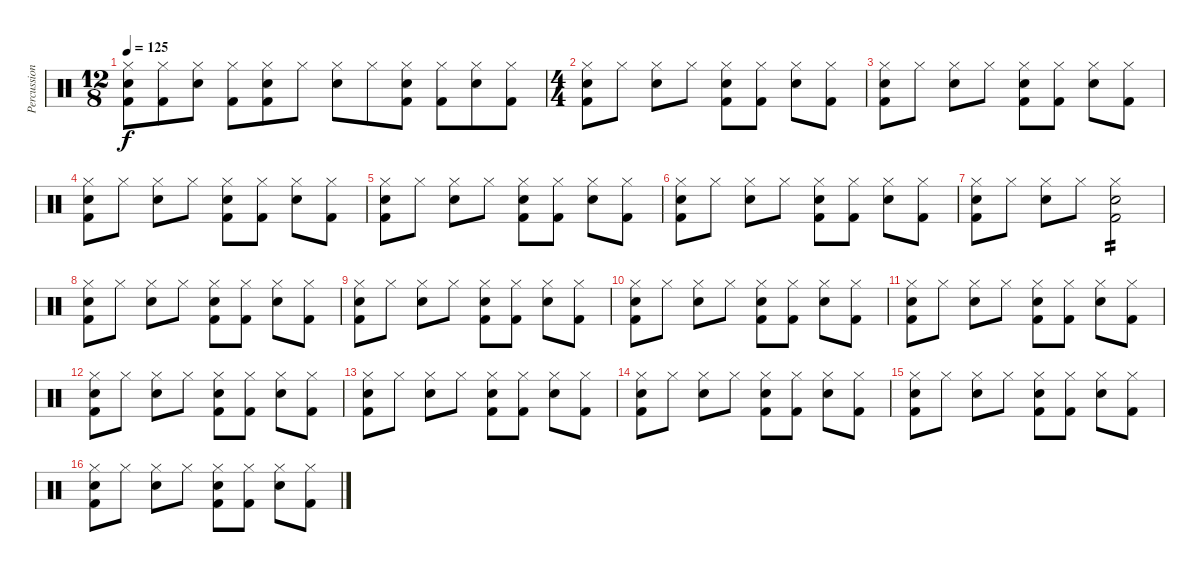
\track ("Percussion" "Percussion") {instrument percussion}
\staff {score}
\articulation defaults
\ts (12 8)
\tempo 125
\clef neutral
\ks c
("Hi-Hat (closed)" "Electric Snare (hit)" "Kick (hit) 2").8{dy f} ("Hi-Hat (closed)" "Kick (hit) 2").8 ("Hi-Hat (closed)" "Electric Snare (hit)").8 ("Hi-Hat (closed)" "Kick (hit) 2").8 ("Hi-Hat (closed)" "Electric Snare (hit)" "Kick (hit) 2").8 "Hi-Hat (closed)".8 ("Hi-Hat (closed)" "Electric Snare (hit)").8 "Hi-Hat (closed)".8 ("Hi-Hat (closed)" "Electric Snare (hit)" "Kick (hit) 2").8 ("Hi-Hat (closed)" "Kick (hit) 2").8 ("Hi-Hat (closed)" "Electric Snare (hit)").8 ("Hi-Hat (closed)" "Kick (hit) 2").8 |
\ts (4 4)
("Hi-Hat (closed)" "Electric Snare (hit)" "Kick (hit) 2").8 "Hi-Hat (closed)".8 ("Hi-Hat (closed)" "Electric Snare (hit)").8 "Hi-Hat (closed)".8 ("Hi-Hat (closed)" "Electric Snare (hit)" "Kick (hit) 2").8 ("Hi-Hat (closed)" "Kick (hit) 2").8 ("Hi-Hat (closed)" "Electric Snare (hit)").8 ("Hi-Hat (closed)" "Kick (hit) 2").8 |
("Hi-Hat (closed)" "Electric Snare (hit)" "Kick (hit) 2").8 "Hi-Hat (closed)".8 ("Hi-Hat (closed)" "Electric Snare (hit)").8 "Hi-Hat (closed)".8 ("Hi-Hat (closed)" "Electric Snare (hit)" "Kick (hit) 2").8 ("Hi-Hat (closed)" "Kick (hit) 2").8 ("Hi-Hat (closed)" "Electric Snare (hit)").8 ("Hi-Hat (closed)" "Kick (hit) 2").8 |
("Hi-Hat (closed)" "Electric Snare (hit)" "Kick (hit) 2").8 "Hi-Hat (closed)".8 ("Hi-Hat (closed)" "Electric Snare (hit)").8 "Hi-Hat (closed)".8 ("Hi-Hat (closed)" "Electric Snare (hit)" "Kick (hit) 2").8 ("Hi-Hat (closed)" "Kick (hit) 2").8 ("Hi-Hat (closed)" "Electric Snare (hit)").8 ("Hi-Hat (closed)" "Kick (hit) 2").8 |
("Hi-Hat (closed)" "Electric Snare (hit)" "Kick (hit) 2").8 "Hi-Hat (closed)".8 ("Hi-Hat (closed)" "Electric Snare (hit)").8 "Hi-Hat (closed)".8 ("Hi-Hat (closed)" "Electric Snare (hit)" "Kick (hit) 2").8 ("Hi-Hat (closed)" "Kick (hit) 2").8 ("Hi-Hat (closed)" "Electric Snare (hit)").8 ("Hi-Hat (closed)" "Kick (hit) 2").8 |
("Hi-Hat (closed)" "Electric Snare (hit)" "Kick (hit) 2").8 "Hi-Hat (closed)".8 ("Hi-Hat (closed)" "Electric Snare (hit)").8 "Hi-Hat (closed)".8 ("Hi-Hat (closed)" "Electric Snare (hit)" "Kick (hit) 2").8 ("Hi-Hat (closed)" "Kick (hit) 2").8 ("Hi-Hat (closed)" "Electric Snare (hit)").8 ("Hi-Hat (closed)" "Kick (hit) 2").8 |
("Hi-Hat (closed)" "Electric Snare (hit)" "Kick (hit) 2").8 "Hi-Hat (closed)".8 ("Hi-Hat (closed)" "Electric Snare (hit)").8 "Hi-Hat (closed)".8 ("Hi-Hat (closed)" "Electric Snare (hit)" "Kick (hit) 2").2{tp 2} |
("Hi-Hat (closed)" "Electric Snare (hit)" "Kick (hit) 2").8 "Hi-Hat (closed)".8 ("Hi-Hat (closed)" "Electric Snare (hit)").8 "Hi-Hat (closed)".8 ("Hi-Hat (closed)" "Electric Snare (hit)" "Kick (hit) 2").8 ("Hi-Hat (closed)" "Kick (hit) 2").8 ("Hi-Hat (closed)" "Electric Snare (hit)").8 ("Hi-Hat (closed)" "Kick (hit) 2").8 |
("Hi-Hat (closed)" "Electric Snare (hit)" "Kick (hit) 2").8 "Hi-Hat (closed)".8 ("Hi-Hat (closed)" "Electric Snare (hit)").8 "Hi-Hat (closed)".8 ("Hi-Hat (closed)" "Electric Snare (hit)" "Kick (hit) 2").8 ("Hi-Hat (closed)" "Kick (hit) 2").8 ("Hi-Hat (closed)" "Electric Snare (hit)").8 ("Hi-Hat (closed)" "Kick (hit) 2").8 |
("Hi-Hat (closed)" "Electric Snare (hit)" "Kick (hit) 2").8 "Hi-Hat (closed)".8 ("Hi-Hat (closed)" "Electric Snare (hit)").8 "Hi-Hat (closed)".8 ("Hi-Hat (closed)" "Electric Snare (hit)" "Kick (hit) 2").8 ("Hi-Hat (closed)" "Kick (hit) 2").8 ("Hi-Hat (closed)" "Electric Snare (hit)").8 ("Hi-Hat (closed)" "Kick (hit) 2").8 |
("Hi-Hat (closed)" "Electric Snare (hit)" "Kick (hit) 2").8 "Hi-Hat (closed)".8 ("Hi-Hat (closed)" "Electric Snare (hit)").8 "Hi-Hat (closed)".8 ("Hi-Hat (closed)" "Electric Snare (hit)" "Kick (hit) 2").8 ("Hi-Hat (closed)" "Kick (hit) 2").8 ("Hi-Hat (closed)" "Electric Snare (hit)").8 ("Hi-Hat (closed)" "Kick (hit) 2").8 |
("Hi-Hat (closed)" "Electric Snare (hit)" "Kick (hit) 2").8 "Hi-Hat (closed)".8 ("Hi-Hat (closed)" "Electric Snare (hit)").8 "Hi-Hat (closed)".8 ("Hi-Hat (closed)" "Electric Snare (hit)" "Kick (hit) 2").8 ("Hi-Hat (closed)" "Kick (hit) 2").8 ("Hi-Hat (closed)" "Electric Snare (hit)").8 ("Hi-Hat (closed)" "Kick (hit) 2").8 |
("Hi-Hat (closed)" "Electric Snare (hit)" "Kick (hit) 2").8 "Hi-Hat (closed)".8 ("Hi-Hat (closed)" "Electric Snare (hit)").8 "Hi-Hat (closed)".8 ("Hi-Hat (closed)" "Electric Snare (hit)" "Kick (hit) 2").8 ("Hi-Hat (closed)" "Kick (hit) 2").8 ("Hi-Hat (closed)" "Electric Snare (hit)").8 ("Hi-Hat (closed)" "Kick (hit) 2").8 |
("Hi-Hat (closed)" "Electric Snare (hit)" "Kick (hit) 2").8 "Hi-Hat (closed)".8 ("Hi-Hat (closed)" "Electric Snare (hit)").8 "Hi-Hat (closed)".8 ("Hi-Hat (closed)" "Electric Snare (hit)" "Kick (hit) 2").8 ("Hi-Hat (closed)" "Kick (hit) 2").8 ("Hi-Hat (closed)" "Electric Snare (hit)").8 ("Hi-Hat (closed)" "Kick (hit) 2").8 |
("Hi-Hat (closed)" "Electric Snare (hit)" "Kick (hit) 2").8 "Hi-Hat (closed)".8 ("Hi-Hat (closed)" "Electric Snare (hit)").8 "Hi-Hat (closed)".8 ("Hi-Hat (closed)" "Electric Snare (hit)" "Kick (hit) 2").8 ("Hi-Hat (closed)" "Kick (hit) 2").8 ("Hi-Hat (closed)" "Electric Snare (hit)").8 ("Hi-Hat (closed)" "Kick (hit) 2").8 |
("Hi-Hat (closed)" "Electric Snare (hit)" "Kick (hit) 2").8 "Hi-Hat (closed)".8 ("Hi-Hat (closed)" "Electric Snare (hit)").8 "Hi-Hat (closed)".8 ("Hi-Hat (closed)" "Electric Snare (hit)" "Kick (hit) 2").8 ("Hi-Hat (closed)" "Kick (hit) 2").8 ("Hi-Hat (closed)" "Electric Snare (hit)").8 ("Hi-Hat (closed)" "Kick (hit) 2").8
